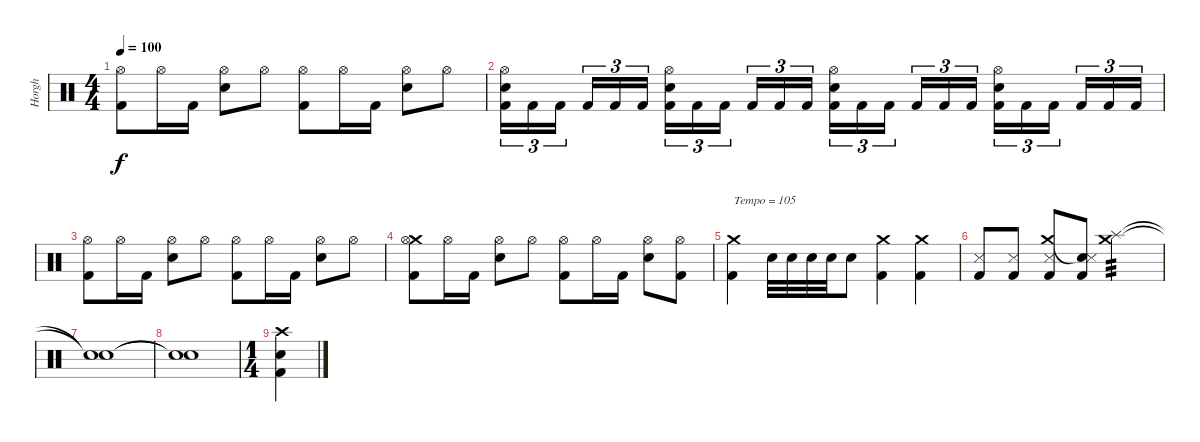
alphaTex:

\track ("Horgh" "Horgh") {instrument percussion}
\staff {score}
\articulation defaults
\ts (4 4)
\tempo 100
\clef neutral
\ks c
("Hi-Hat (open)" "Kick (hit) 2").8{dy f} "Hi-Hat (open)".16 "Kick (hit) 2".16 ("Hi-Hat (open)" "Electric Snare (hit)").8 "Hi-Hat (open)".8 ("Hi-Hat (open)" "Kick (hit) 2").8 "Hi-Hat (open)".16 "Kick (hit) 2".16 ("Hi-Hat (open)" "Electric Snare (hit)").8 "Hi-Hat (open)".8 |
("Hi-Hat (open)" "Electric Snare (hit)" "Kick (hit) 2").16{tu (3 2)} "Kick (hit) 2".16{tu (3 2)} "Kick (hit) 2".16{tu (3 2) beam splitsecondary} "Kick (hit) 2".16{tu (3 2)} "Kick (hit) 2".16{tu (3 2)} "Kick (hit) 2".16{tu (3 2)} ("Hi-Hat (open)" "Electric Snare (hit)" "Kick (hit) 2").16{tu (3 2)} "Kick (hit) 2".16{tu (3 2)} "Kick (hit) 2".16{tu (3 2) beam splitsecondary} "Kick (hit) 2".16{tu (3 2)} "Kick (hit) 2".16{tu (3 2)} "Kick (hit) 2".16{tu (3 2)} ("Hi-Hat (open)" "Electric Snare (hit)" "Kick (hit) 2").16{tu (3 2)} "Kick (hit) 2".16{tu (3 2)} "Kick (hit) 2".16{tu (3 2) beam splitsecondary} "Kick (hit) 2".16{tu (3 2)} "Kick (hit) 2".16{tu (3 2)} "Kick (hit) 2".16{tu (3 2)} ("Hi-Hat (open)" "Electric Snare (hit)" "Kick (hit) 2").16{tu (3 2)} "Kick (hit) 2".16{tu (3 2)} "Kick (hit) 2".16{tu (3 2) beam splitsecondary} "Kick (hit) 2".16{tu (3 2)} "Kick (hit) 2".16{tu (3 2)} "Kick (hit) 2".16{tu (3 2)} |
("Hi-Hat (open)" "Kick (hit) 2").8 "Hi-Hat (open)".16 "Kick (hit) 2".16 ("Hi-Hat (open)" "Electric Snare (hit)").8 "Hi-Hat (open)".8 ("Hi-Hat (open)" "Kick (hit) 2").8 "Hi-Hat (open)".16 "Kick (hit) 2".16 ("Hi-Hat (open)" "Electric Snare (hit)").8 "Hi-Hat (open)".8 |
("Crash medium (hit)" "Hi-Hat (open)" "Kick (hit) 2").8 "Hi-Hat (open)".16 "Kick (hit) 2".16 ("Hi-Hat (open)" "Electric Snare (hit)").8 "Hi-Hat (open)".8 ("Hi-Hat (open)" "Kick (hit) 2").8 "Hi-Hat (open)".16 "Kick (hit) 2".16 ("Hi-Hat (open)" "Electric Snare (hit)").8 ("Hi-Hat (open)" "Kick (hit) 2").8 |
("Crash medium (hit)" "Kick (hit) 2").4{txt "Tempo = 105"} "Electric Snare (hit)".32 "Electric Snare (hit)".32 "Electric Snare (hit)".32 "Electric Snare (hit)".32 "Electric Snare (hit)".8 ("Crash medium (hit)" "Kick (hit) 2").4 ("Crash medium (hit)" "Kick (hit) 2").4 |
("Snare (side stick) 3" "Kick (hit) 2").8 ("Snare (side stick) 3" "Kick (hit) 2").8 ("Crash medium (hit)" "Snare (side stick) 3" "Kick (hit) 2").8 ("Snare (hit)"{t} "Snare (side stick) 3" "Kick (hit) 2").8 ("Crash medium (hit)" "Splash (hit)").2{tp 3} |
("Snare (hit)"{t} "Snare (hit)"{t}).1 |
("Snare (hit)"{t} "Snare (hit)"{t}).1 |
\ts (1 4)
("Crash high (hit)" "Electric Snare (hit)" "Kick (hit) 2").4
